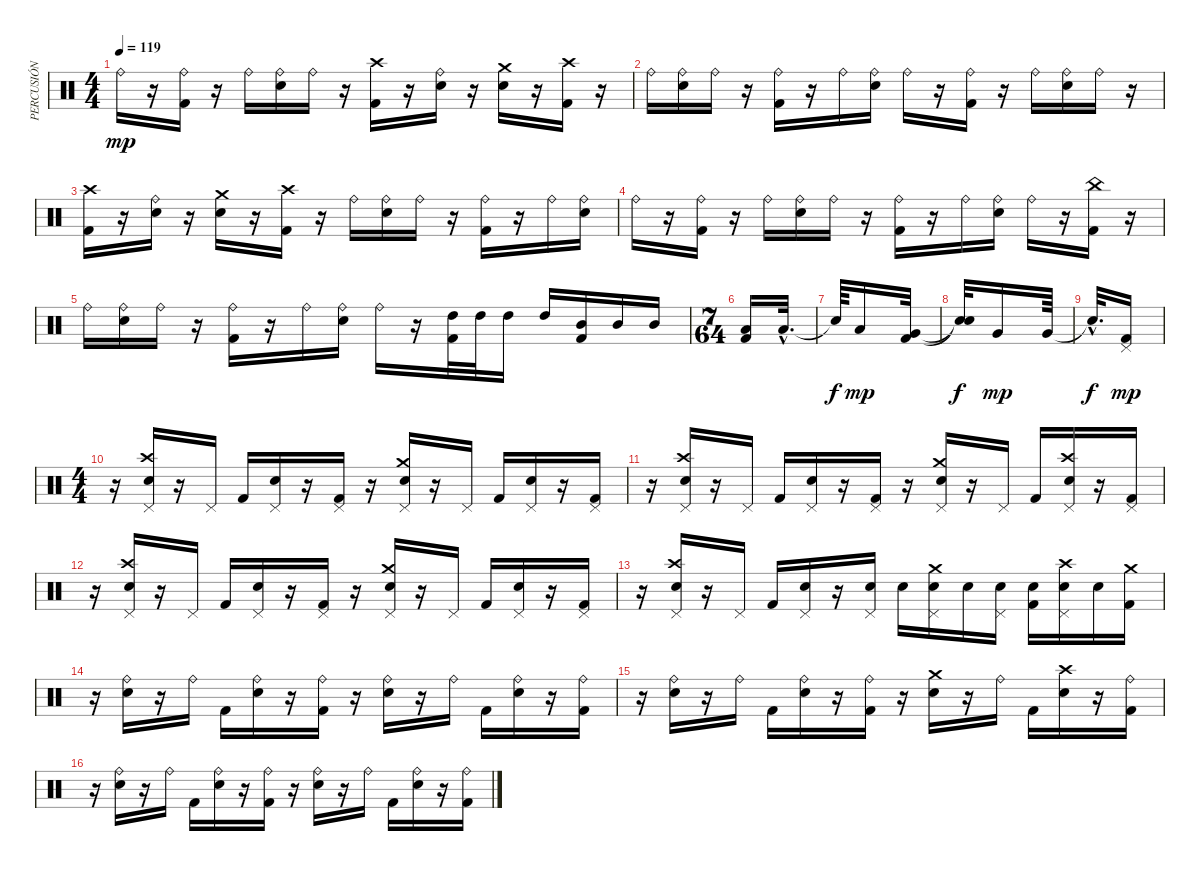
\track ("PERCUSIÓN" "PERCUSIÓN") {instrument percussion}
\staff {score}
\articulation defaults
\ts (4 4)
\tempo 119
\clef neutral
\ks c "Ride (bell)".16{dy mp}
r.16 ("Ride (bell)" "Kick (hit) 2").16 r.16 "Ride (bell)".16 ("Ride (bell)" "Snare (hit) 2").16 "Ride (bell)".16 r.16 ("Kick (hit) 2" "Crash high (hit)").16 r.16 ("Snare (hit) 2" "Ride (bell)").16 r.16 ("Snare (hit) 2" "Crash medium (hit)").16 r.16 ("Kick (hit) 2" "Crash high (hit)").16 r.16 |
"Ride (bell)".16 ("Snare (hit) 2" "Ride (bell)").16 "Ride (bell)".16 r.16 ("Kick (hit) 2" "Ride (bell)").16 r.16 "Ride (bell)".16 ("Ride (bell)" "Snare (hit) 2").16 "Ride (bell)".16 r.16 ("Ride (bell)" "Kick (hit) 2").16 r.16 "Ride (bell)".16 ("Ride (bell)" "Snare (hit) 2").16 "Ride (bell)".16 r.16 |
("Kick (hit) 2" "Crash high (hit)").16 r.16 ("Snare (hit) 2" "Ride (bell)").16 r.16 ("Snare (hit) 2" "Crash medium (hit)").16 r.16 ("Kick (hit) 2" "Crash high (hit)").16 r.16 "Ride (bell)".16 ("Snare (hit) 2" "Ride (bell)").16 "Ride (bell)".16 r.16 ("Kick (hit) 2" "Ride (bell)").16 r.16 "Ride (bell)".16 ("Ride (bell)" "Snare (hit) 2").16 |
"Ride (bell)".16 r.16 ("Ride (bell)" "Kick (hit) 2").16 r.16 "Ride (bell)".16 ("Ride (bell)" "Snare (hit) 2").16 "Ride (bell)".16 r.16 ("Ride (bell)" "Kick (hit) 2").16 r.16 "Ride (bell)".16 ("Ride (bell)" "Snare (hit) 2").16 "Ride (bell)".16 r.16 ("China (hit)" "Kick (hit) 2").16 r.16 |
"Ride (bell)".16 ("Ride (bell)" "Snare (hit) 2").16 "Ride (bell)".16 r.16 ("Ride (bell)" "Kick (hit) 2").16 r.16 "Ride (bell)".16 ("Ride (bell)" "Snare (hit) 2").16 "Ride (bell)".16 r.16 ("Kick (hit) 2" "High Tom (hit)").32 "High Tom (hit)".32 "High Tom (hit)".16 "High Tom (hit)".16 ("Kick (hit) 2" "Mid Tom (hit)").16 "Mid Tom (hit)".16 "Mid Tom (hit)".16 |
\ts (7 64)
("Kick (hit) 2" "Low Tom (hit)").16 "Low Tom (hit)"{hac}.32{d} |
"Snare (hit)"{t}.64{dy f} "Low Tom (hit)".16{dy mp} ("Kick (hit) 2" "Very Low Tom (hit)").32 |
("Snare (hit)"{t} "Snare (hit)"{t}).32{dy f} "Very Low Tom (hit)".16{dy mp} "Very Low Tom (hit)".64 |
"Snare (hit)"{hac t}.32{d dy f} ("Kick (hit) 2" "Pedal Hi-Hat (hit)").16{dy mp} |
\ts (4 4)
r.16 ("Snare (hit) 2" "Crash high (hit)" "Pedal Hi-Hat (hit)").16 r.16 "Pedal Hi-Hat (hit)".16 "Kick (hit) 2".16 ("Snare (hit) 2" "Pedal Hi-Hat (hit)").16 r.16 ("Kick (hit) 2" "Pedal Hi-Hat (hit)").16 r.16 ("Snare (hit) 2" "Crash medium (hit)" "Pedal Hi-Hat (hit)").16 r.16 "Pedal Hi-Hat (hit)".16 "Kick (hit) 2".16 ("Snare (hit) 2" "Pedal Hi-Hat (hit)").16 r.16 ("Kick (hit) 2" "Pedal Hi-Hat (hit)").16 |
r.16 ("Snare (hit) 2" "Crash high (hit)" "Pedal Hi-Hat (hit)").16 r.16 "Pedal Hi-Hat (hit)".16 "Kick (hit) 2".16 ("Snare (hit) 2" "Pedal Hi-Hat (hit)").16 r.16 ("Kick (hit) 2" "Pedal Hi-Hat (hit)").16 r.16 ("Snare (hit) 2" "Crash medium (hit)" "Pedal Hi-Hat (hit)").16 r.16 "Pedal Hi-Hat (hit)".16 "Kick (hit) 2".16 ("Snare (hit) 2" "Pedal Hi-Hat (hit)" "Crash high (hit)").16 r.16 ("Pedal Hi-Hat (hit)" "Kick (hit) 2").16 |
r.16 ("Snare (hit) 2" "Crash high (hit)" "Pedal Hi-Hat (hit)").16 r.16 "Pedal Hi-Hat (hit)".16 "Kick (hit) 2".16 ("Snare (hit) 2" "Pedal Hi-Hat (hit)").16 r.16 ("Kick (hit) 2" "Pedal Hi-Hat (hit)").16 r.16 ("Snare (hit) 2" "Crash medium (hit)" "Pedal Hi-Hat (hit)").16 r.16 "Pedal Hi-Hat (hit)".16 "Kick (hit) 2".16 ("Snare (hit) 2" "Pedal Hi-Hat (hit)").16 r.16 ("Kick (hit) 2" "Pedal Hi-Hat (hit)").16 |
r.16 ("Snare (hit) 2" "Crash high (hit)" "Pedal Hi-Hat (hit)").16 r.16 "Pedal Hi-Hat (hit)".16 "Kick (hit) 2".16 ("Snare (hit) 2" "Pedal Hi-Hat (hit)").16 r.16 ("Pedal Hi-Hat (hit)" "Electric Snare (hit)").16 "Electric Snare (hit)".16 ("Crash medium (hit)" "Pedal Hi-Hat (hit)" "Electric Snare (hit)").16 "Electric Snare (hit)".16 ("Pedal Hi-Hat (hit)" "Snare (hit) 2").16 ("Kick (hit) 2" "Snare (hit) 2").16 ("Snare (hit) 2" "Pedal Hi-Hat (hit)" "Crash high (hit)").16 "Snare (hit) 2".16 ("Kick (hit) 2" "Crash medium (hit)").16 |
r.16 ("Snare (hit) 2" "Ride (bell)").16 r.16 "Ride (bell)".16 "Kick (hit) 2".16 ("Snare (hit) 2" "Ride (bell)").16 r.16 ("Kick (hit) 2" "Ride (bell)").16 r.16 ("Snare (hit) 2" "Ride (bell)").16 r.16 "Ride (bell)".16 "Kick (hit) 2".16 ("Snare (hit) 2" "Ride (bell)").16 r.16 ("Kick (hit) 2" "Ride (bell)").16 |
r.16 ("Snare (hit) 2" "Ride (bell)").16 r.16 "Ride (bell)".16 "Kick (hit) 2".16 ("Snare (hit) 2" "Ride (bell)").16 r.16 ("Kick (hit) 2" "Ride (bell)").16 r.16 ("Snare (hit) 2" "Crash medium (hit)").16 r.16 "Ride (bell)".16 "Kick (hit) 2".16 ("Snare (hit) 2" "Crash high (hit)").16 r.16 ("Kick (hit) 2" "Ride (bell)").16 |
r.16 ("Snare (hit) 2" "Ride (bell)").16 r.16 "Ride (bell)".16 "Kick (hit) 2".16 ("Snare (hit) 2" "Ride (bell)").16 r.16 ("Kick (hit) 2" "Ride (bell)").16 r.16 ("Snare (hit) 2" "Ride (bell)").16 r.16 "Ride (bell)".16 "Kick (hit) 2".16 ("Snare (hit) 2" "Ride (bell)").16 r.16 ("Kick (hit) 2" "Ride (bell)").16
